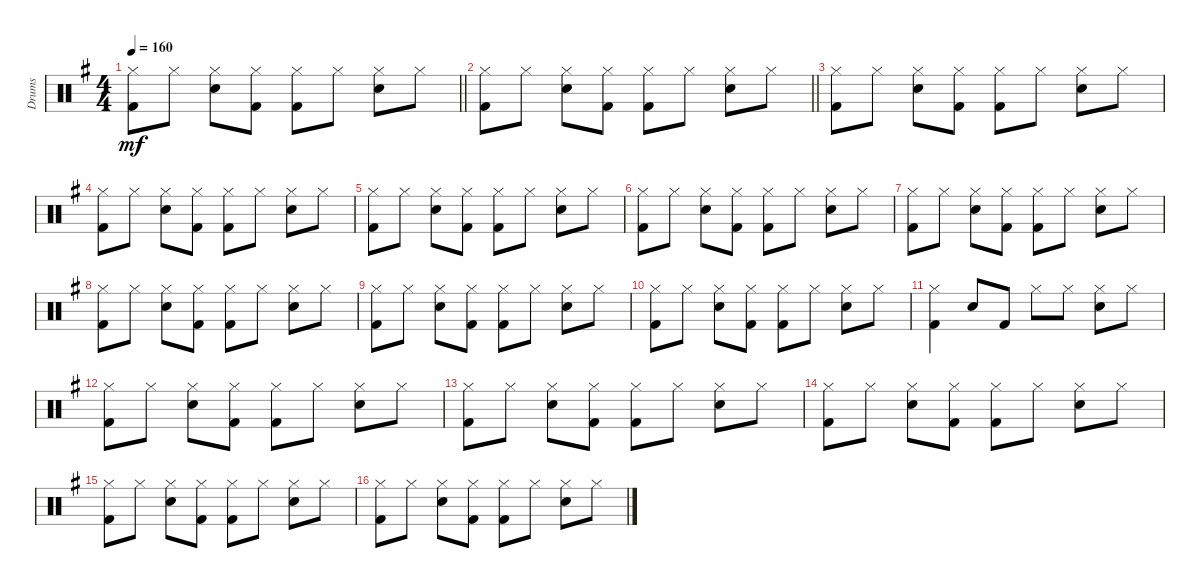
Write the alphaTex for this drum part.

\track ("Drums" "Drums") {instrument percussion}
\staff {score}
\articulation defaults
\ts (4 4)
\tempo 160
\clef neutral
\barLineRight lightlight
\ks g
("Kick (hit) 2" "Hi-Hat (closed)").8{dy mf} "Hi-Hat (closed)".8 ("Hi-Hat (closed)" "Snare (hit) 2").8 ("Hi-Hat (closed)" "Kick (hit) 2").8 ("Hi-Hat (closed)" "Kick (hit) 2").8 "Hi-Hat (closed)".8 ("Hi-Hat (closed)" "Snare (hit) 2").8 "Hi-Hat (closed)".8 |
\barLineRight lightlight
("Kick (hit) 2" "Hi-Hat (closed)").8 "Hi-Hat (closed)".8 ("Hi-Hat (closed)" "Snare (hit) 2").8 ("Hi-Hat (closed)" "Kick (hit) 2").8 ("Hi-Hat (closed)" "Kick (hit) 2").8 "Hi-Hat (closed)".8 ("Hi-Hat (closed)" "Snare (hit) 2").8 "Hi-Hat (closed)".8 |
("Kick (hit) 2" "Hi-Hat (closed)").8 "Hi-Hat (closed)".8 ("Hi-Hat (closed)" "Snare (hit) 2").8 ("Hi-Hat (closed)" "Kick (hit) 2").8 ("Hi-Hat (closed)" "Kick (hit) 2").8 "Hi-Hat (closed)".8 ("Hi-Hat (closed)" "Snare (hit) 2").8 "Hi-Hat (closed)".8 |
("Kick (hit) 2" "Hi-Hat (closed)").8 "Hi-Hat (closed)".8 ("Hi-Hat (closed)" "Snare (hit) 2").8 ("Hi-Hat (closed)" "Kick (hit) 2").8 ("Hi-Hat (closed)" "Kick (hit) 2").8 "Hi-Hat (closed)".8 ("Hi-Hat (closed)" "Snare (hit) 2").8 "Hi-Hat (closed)".8 |
("Kick (hit) 2" "Hi-Hat (closed)").8 "Hi-Hat (closed)".8 ("Hi-Hat (closed)" "Snare (hit) 2").8 ("Hi-Hat (closed)" "Kick (hit) 2").8 ("Hi-Hat (closed)" "Kick (hit) 2").8 "Hi-Hat (closed)".8 ("Hi-Hat (closed)" "Snare (hit) 2").8 "Hi-Hat (closed)".8 |
("Kick (hit) 2" "Hi-Hat (closed)").8 "Hi-Hat (closed)".8 ("Hi-Hat (closed)" "Snare (hit) 2").8 ("Hi-Hat (closed)" "Kick (hit) 2").8 ("Hi-Hat (closed)" "Kick (hit) 2").8 "Hi-Hat (closed)".8 ("Hi-Hat (closed)" "Snare (hit) 2").8 "Hi-Hat (closed)".8 |
("Kick (hit) 2" "Hi-Hat (closed)").8 "Hi-Hat (closed)".8 ("Hi-Hat (closed)" "Snare (hit) 2").8 ("Hi-Hat (closed)" "Kick (hit) 2").8 ("Hi-Hat (closed)" "Kick (hit) 2").8 "Hi-Hat (closed)".8 ("Hi-Hat (closed)" "Snare (hit) 2").8 "Hi-Hat (closed)".8 |
("Kick (hit) 2" "Hi-Hat (closed)").8 "Hi-Hat (closed)".8 ("Hi-Hat (closed)" "Snare (hit) 2").8 ("Hi-Hat (closed)" "Kick (hit) 2").8 ("Hi-Hat (closed)" "Kick (hit) 2").8 "Hi-Hat (closed)".8 ("Hi-Hat (closed)" "Snare (hit) 2").8 "Hi-Hat (closed)".8 |
("Kick (hit) 2" "Hi-Hat (closed)").8 "Hi-Hat (closed)".8 ("Hi-Hat (closed)" "Snare (hit) 2").8 ("Hi-Hat (closed)" "Kick (hit) 2").8 ("Hi-Hat (closed)" "Kick (hit) 2").8 "Hi-Hat (closed)".8 ("Hi-Hat (closed)" "Snare (hit) 2").8 "Hi-Hat (closed)".8 |
("Kick (hit) 2" "Hi-Hat (closed)").8 "Hi-Hat (closed)".8 ("Hi-Hat (closed)" "Snare (hit) 2").8 ("Hi-Hat (closed)" "Kick (hit) 2").8 ("Hi-Hat (closed)" "Kick (hit) 2").8 "Hi-Hat (closed)".8 ("Hi-Hat (closed)" "Snare (hit) 2").8 "Hi-Hat (closed)".8 |
("Kick (hit) 2" "Hi-Hat (closed)").4 "Snare (hit) 2".8 "Kick (hit) 2".8 "Hi-Hat (closed)".8 "Hi-Hat (closed)".8 ("Hi-Hat (closed)" "Snare (hit) 2").8 "Hi-Hat (closed)".8 |
("Kick (hit) 2" "Hi-Hat (closed)").8 "Hi-Hat (closed)".8 ("Hi-Hat (closed)" "Snare (hit) 2").8 ("Hi-Hat (closed)" "Kick (hit) 2").8 ("Hi-Hat (closed)" "Kick (hit) 2").8 "Hi-Hat (closed)".8 ("Hi-Hat (closed)" "Snare (hit) 2").8 "Hi-Hat (closed)".8 |
("Kick (hit) 2" "Hi-Hat (closed)").8 "Hi-Hat (closed)".8 ("Hi-Hat (closed)" "Snare (hit) 2").8 ("Hi-Hat (closed)" "Kick (hit) 2").8 ("Hi-Hat (closed)" "Kick (hit) 2").8 "Hi-Hat (closed)".8 ("Hi-Hat (closed)" "Snare (hit) 2").8 "Hi-Hat (closed)".8 |
("Kick (hit) 2" "Hi-Hat (closed)").8 "Hi-Hat (closed)".8 ("Hi-Hat (closed)" "Snare (hit) 2").8 ("Hi-Hat (closed)" "Kick (hit) 2").8 ("Hi-Hat (closed)" "Kick (hit) 2").8 "Hi-Hat (closed)".8 ("Hi-Hat (closed)" "Snare (hit) 2").8 "Hi-Hat (closed)".8 |
("Kick (hit) 2" "Hi-Hat (closed)").8 "Hi-Hat (closed)".8 ("Hi-Hat (closed)" "Snare (hit) 2").8 ("Hi-Hat (closed)" "Kick (hit) 2").8 ("Hi-Hat (closed)" "Kick (hit) 2").8 "Hi-Hat (closed)".8 ("Hi-Hat (closed)" "Snare (hit) 2").8 "Hi-Hat (closed)".8 |
("Kick (hit) 2" "Hi-Hat (closed)").8 "Hi-Hat (closed)".8 ("Hi-Hat (closed)" "Snare (hit) 2").8 ("Hi-Hat (closed)" "Kick (hit) 2").8 ("Hi-Hat (closed)" "Kick (hit) 2").8 "Hi-Hat (closed)".8 ("Hi-Hat (closed)" "Snare (hit) 2").8 "Hi-Hat (closed)".8
